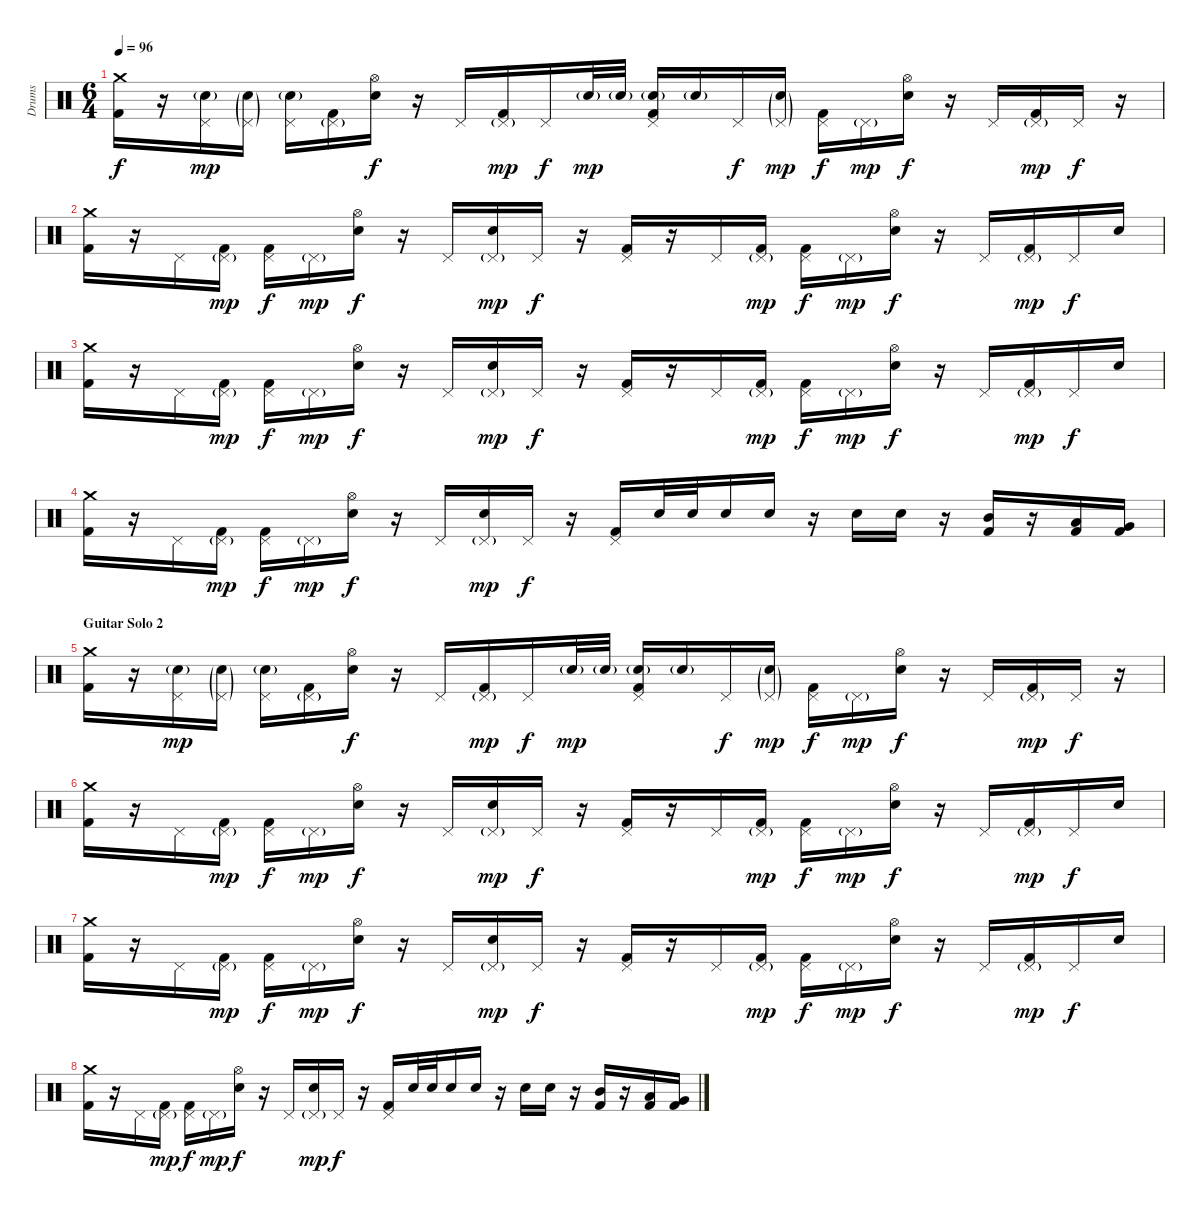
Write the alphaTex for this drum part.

\track ("Drums" "Drums") {instrument percussion}
\staff {score}
\articulation defaults
\ts (6 4)
\tempo 96
\clef neutral
\ks c
("Crash medium (hit)" "Kick (hit) 2").16{dy f} r.16 ("Pedal Hi-Hat (hit)" "Electric Snare (hit)"{g}).16{dy mp} ("Pedal Hi-Hat (hit)"{g} "Electric Snare (hit)"{g}).16 ("Pedal Hi-Hat (hit)" "Electric Snare (hit)"{g}).16 ("Pedal Hi-Hat (hit)"{g} "Kick (hit) 2").16 ("Hi-Hat (open)" "Electric Snare (hit)").16{dy f} r.16 "Pedal Hi-Hat (hit)".16 ("Pedal Hi-Hat (hit)"{g} "Kick (hit) 2").16{dy mp} "Pedal Hi-Hat (hit)".16{dy f} "Electric Snare (hit)"{g}.32{dy mp} "Electric Snare (hit)"{g}.32 ("Pedal Hi-Hat (hit)" "Electric Snare (hit)"{g} "Kick (hit) 2").16 "Electric Snare (hit)"{g}.16 "Pedal Hi-Hat (hit)".16{dy f} ("Pedal Hi-Hat (hit)"{g} "Electric Snare (hit)"{g}).16{dy mp} ("Pedal Hi-Hat (hit)" "Kick (hit) 2").16{dy f} "Pedal Hi-Hat (hit)"{g}.16{dy mp} ("Hi-Hat (open)" "Electric Snare (hit)").16{dy f} r.16 "Pedal Hi-Hat (hit)".16 ("Pedal Hi-Hat (hit)"{g} "Kick (hit) 2").16{dy mp} "Pedal Hi-Hat (hit)".16{dy f} r.16 |
("Crash medium (hit)" "Kick (hit) 2").16 r.16 "Pedal Hi-Hat (hit)".16 ("Pedal Hi-Hat (hit)"{g} "Kick (hit) 2").16{dy mp} ("Pedal Hi-Hat (hit)" "Kick (hit) 2").16{dy f} "Pedal Hi-Hat (hit)"{g}.16{dy mp} ("Hi-Hat (open)" "Electric Snare (hit)").16{dy f} r.16 "Pedal Hi-Hat (hit)".16 ("Pedal Hi-Hat (hit)"{g} "Electric Snare (hit)").16{dy mp} "Pedal Hi-Hat (hit)".16{dy f} r.16 ("Pedal Hi-Hat (hit)" "Kick (hit) 2").16 r.16 "Pedal Hi-Hat (hit)".16 ("Pedal Hi-Hat (hit)"{g} "Kick (hit) 2").16{dy mp} ("Pedal Hi-Hat (hit)" "Kick (hit) 2").16{dy f} "Pedal Hi-Hat (hit)"{g}.16{dy mp} ("Hi-Hat (open)" "Electric Snare (hit)").16{dy f} r.16 "Pedal Hi-Hat (hit)".16 ("Pedal Hi-Hat (hit)"{g} "Kick (hit) 2").16{dy mp} "Pedal Hi-Hat (hit)".16{dy f} "Electric Snare (hit)".16 |
("Crash medium (hit)" "Kick (hit) 2").16 r.16 "Pedal Hi-Hat (hit)".16 ("Pedal Hi-Hat (hit)"{g} "Kick (hit) 2").16{dy mp} ("Pedal Hi-Hat (hit)" "Kick (hit) 2").16{dy f} "Pedal Hi-Hat (hit)"{g}.16{dy mp} ("Hi-Hat (open)" "Electric Snare (hit)").16{dy f} r.16 "Pedal Hi-Hat (hit)".16 ("Pedal Hi-Hat (hit)"{g} "Electric Snare (hit)").16{dy mp} "Pedal Hi-Hat (hit)".16{dy f} r.16 ("Pedal Hi-Hat (hit)" "Kick (hit) 2").16 r.16 "Pedal Hi-Hat (hit)".16 ("Pedal Hi-Hat (hit)"{g} "Kick (hit) 2").16{dy mp} ("Pedal Hi-Hat (hit)" "Kick (hit) 2").16{dy f} "Pedal Hi-Hat (hit)"{g}.16{dy mp} ("Hi-Hat (open)" "Electric Snare (hit)").16{dy f} r.16 "Pedal Hi-Hat (hit)".16 ("Pedal Hi-Hat (hit)"{g} "Kick (hit) 2").16{dy mp} "Pedal Hi-Hat (hit)".16{dy f} "Electric Snare (hit)".16 |
("Crash medium (hit)" "Kick (hit) 2").16 r.16 "Pedal Hi-Hat (hit)".16 ("Pedal Hi-Hat (hit)"{g} "Kick (hit) 2").16{dy mp} ("Pedal Hi-Hat (hit)" "Kick (hit) 2").16{dy f} "Pedal Hi-Hat (hit)"{g}.16{dy mp} ("Hi-Hat (open)" "Electric Snare (hit)").16{dy f} r.16 "Pedal Hi-Hat (hit)".16 ("Pedal Hi-Hat (hit)"{g} "Electric Snare (hit)").16{dy mp} "Pedal Hi-Hat (hit)".16{dy f} r.16 ("Pedal Hi-Hat (hit)" "Kick (hit) 2").16 "Electric Snare (hit)".32 "Electric Snare (hit)".32 "Electric Snare (hit)".16 "Electric Snare (hit)".16 r.16 "Electric Snare (hit)".16 "Electric Snare (hit)".16 r.16 ("Mid Tom (hit)" "Kick (hit) 2").16 r.16 ("Low Tom (hit)" "Kick (hit) 2").16 ("Very Low Tom (hit)" "Kick (hit) 2").16 |
\section ("" "Guitar Solo 2")
("Crash medium (hit)" "Kick (hit) 2").16 r.16 ("Pedal Hi-Hat (hit)" "Electric Snare (hit)"{g}).16{dy mp} ("Pedal Hi-Hat (hit)"{g} "Electric Snare (hit)"{g}).16 ("Pedal Hi-Hat (hit)" "Electric Snare (hit)"{g}).16 ("Pedal Hi-Hat (hit)"{g} "Kick (hit) 2").16 ("Hi-Hat (open)" "Electric Snare (hit)").16{dy f} r.16 "Pedal Hi-Hat (hit)".16 ("Pedal Hi-Hat (hit)"{g} "Kick (hit) 2").16{dy mp} "Pedal Hi-Hat (hit)".16{dy f} "Electric Snare (hit)"{g}.32{dy mp} "Electric Snare (hit)"{g}.32 ("Pedal Hi-Hat (hit)" "Electric Snare (hit)"{g} "Kick (hit) 2").16 "Electric Snare (hit)"{g}.16 "Pedal Hi-Hat (hit)".16{dy f} ("Pedal Hi-Hat (hit)"{g} "Electric Snare (hit)"{g}).16{dy mp} ("Pedal Hi-Hat (hit)" "Kick (hit) 2").16{dy f} "Pedal Hi-Hat (hit)"{g}.16{dy mp} ("Hi-Hat (open)" "Electric Snare (hit)").16{dy f} r.16 "Pedal Hi-Hat (hit)".16 ("Pedal Hi-Hat (hit)"{g} "Kick (hit) 2").16{dy mp} "Pedal Hi-Hat (hit)".16{dy f} r.16 |
("Crash medium (hit)" "Kick (hit) 2").16 r.16 "Pedal Hi-Hat (hit)".16 ("Pedal Hi-Hat (hit)"{g} "Kick (hit) 2").16{dy mp} ("Pedal Hi-Hat (hit)" "Kick (hit) 2").16{dy f} "Pedal Hi-Hat (hit)"{g}.16{dy mp} ("Hi-Hat (open)" "Electric Snare (hit)").16{dy f} r.16 "Pedal Hi-Hat (hit)".16 ("Pedal Hi-Hat (hit)"{g} "Electric Snare (hit)").16{dy mp} "Pedal Hi-Hat (hit)".16{dy f} r.16 ("Pedal Hi-Hat (hit)" "Kick (hit) 2").16 r.16 "Pedal Hi-Hat (hit)".16 ("Pedal Hi-Hat (hit)"{g} "Kick (hit) 2").16{dy mp} ("Pedal Hi-Hat (hit)" "Kick (hit) 2").16{dy f} "Pedal Hi-Hat (hit)"{g}.16{dy mp} ("Hi-Hat (open)" "Electric Snare (hit)").16{dy f} r.16 "Pedal Hi-Hat (hit)".16 ("Pedal Hi-Hat (hit)"{g} "Kick (hit) 2").16{dy mp} "Pedal Hi-Hat (hit)".16{dy f} "Electric Snare (hit)".16 |
("Crash medium (hit)" "Kick (hit) 2").16 r.16 "Pedal Hi-Hat (hit)".16 ("Pedal Hi-Hat (hit)"{g} "Kick (hit) 2").16{dy mp} ("Pedal Hi-Hat (hit)" "Kick (hit) 2").16{dy f} "Pedal Hi-Hat (hit)"{g}.16{dy mp} ("Hi-Hat (open)" "Electric Snare (hit)").16{dy f} r.16 "Pedal Hi-Hat (hit)".16 ("Pedal Hi-Hat (hit)"{g} "Electric Snare (hit)").16{dy mp} "Pedal Hi-Hat (hit)".16{dy f} r.16 ("Pedal Hi-Hat (hit)" "Kick (hit) 2").16 r.16 "Pedal Hi-Hat (hit)".16 ("Pedal Hi-Hat (hit)"{g} "Kick (hit) 2").16{dy mp} ("Pedal Hi-Hat (hit)" "Kick (hit) 2").16{dy f} "Pedal Hi-Hat (hit)"{g}.16{dy mp} ("Hi-Hat (open)" "Electric Snare (hit)").16{dy f} r.16 "Pedal Hi-Hat (hit)".16 ("Pedal Hi-Hat (hit)"{g} "Kick (hit) 2").16{dy mp} "Pedal Hi-Hat (hit)".16{dy f} "Electric Snare (hit)".16 |
("Crash medium (hit)" "Kick (hit) 2").16 r.16 "Pedal Hi-Hat (hit)".16 ("Pedal Hi-Hat (hit)"{g} "Kick (hit) 2").16{dy mp} ("Pedal Hi-Hat (hit)" "Kick (hit) 2").16{dy f} "Pedal Hi-Hat (hit)"{g}.16{dy mp} ("Hi-Hat (open)" "Electric Snare (hit)").16{dy f} r.16 "Pedal Hi-Hat (hit)".16 ("Pedal Hi-Hat (hit)"{g} "Electric Snare (hit)").16{dy mp} "Pedal Hi-Hat (hit)".16{dy f} r.16 ("Pedal Hi-Hat (hit)" "Kick (hit) 2").16 "Electric Snare (hit)".32 "Electric Snare (hit)".32 "Electric Snare (hit)".16 "Electric Snare (hit)".16 r.16 "Electric Snare (hit)".16 "Electric Snare (hit)".16 r.16 ("Mid Tom (hit)" "Kick (hit) 2").16 r.16 ("Low Tom (hit)" "Kick (hit) 2").16 ("Very Low Tom (hit)" "Kick (hit) 2").16
